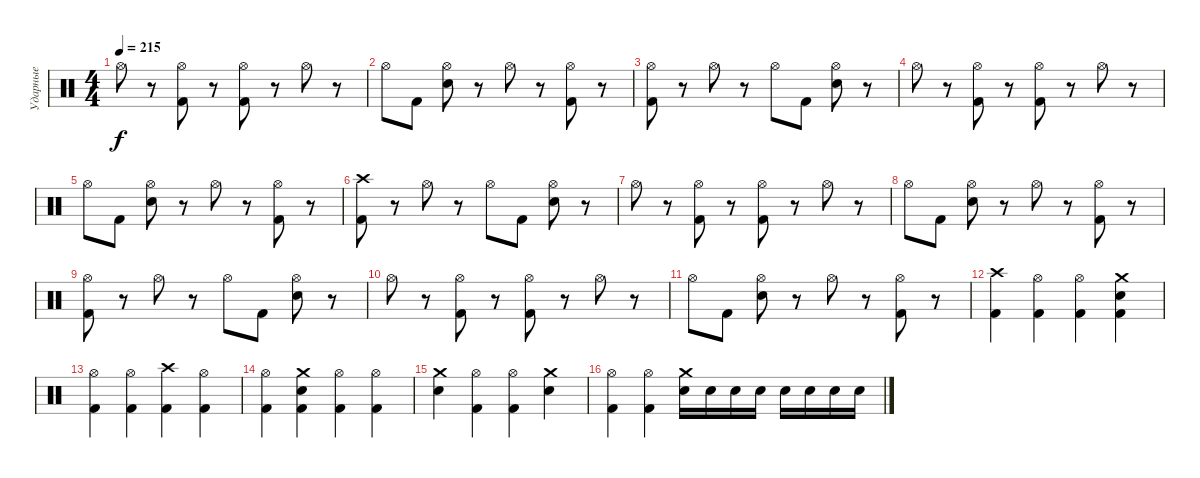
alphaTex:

\track ("Ударные" "Ударные") {instrument percussion}
\staff {score}
\articulation defaults
\ts (4 4)
\tempo 215
\clef neutral
\ks c "Hi-Hat (open)".8{dy f}
r.8 ("Hi-Hat (open)" "Kick (hit) 2").8 r.8 ("Hi-Hat (open)" "Kick (hit) 2").8 r.8 "Hi-Hat (open)".8 r.8 |
"Hi-Hat (open)".8 "Kick (hit) 2".8 ("Hi-Hat (open)" "Snare (hit) 2").8 r.8 "Hi-Hat (open)".8 r.8 ("Hi-Hat (open)" "Kick (hit) 2").8 r.8 |
("Hi-Hat (open)" "Kick (hit) 2").8 r.8 "Hi-Hat (open)".8 r.8 "Hi-Hat (open)".8 "Kick (hit) 2".8 ("Hi-Hat (open)" "Snare (hit) 2").8 r.8 |
"Hi-Hat (open)".8 r.8 ("Hi-Hat (open)" "Kick (hit) 2").8 r.8 ("Hi-Hat (open)" "Kick (hit) 2").8 r.8 "Hi-Hat (open)".8 r.8 |
"Hi-Hat (open)".8 "Kick (hit) 2".8 ("Hi-Hat (open)" "Snare (hit) 2").8 r.8 "Hi-Hat (open)".8 r.8 ("Hi-Hat (open)" "Kick (hit) 2").8 r.8 |
("Crash high (hit)" "Kick (hit) 2").8 r.8 "Hi-Hat (open)".8 r.8 "Hi-Hat (open)".8 "Kick (hit) 2".8 ("Hi-Hat (open)" "Snare (hit) 2").8 r.8 |
"Hi-Hat (open)".8 r.8 ("Hi-Hat (open)" "Kick (hit) 2").8 r.8 ("Hi-Hat (open)" "Kick (hit) 2").8 r.8 "Hi-Hat (open)".8 r.8 |
"Hi-Hat (open)".8 "Kick (hit) 2".8 ("Hi-Hat (open)" "Snare (hit) 2").8 r.8 "Hi-Hat (open)".8 r.8 ("Hi-Hat (open)" "Kick (hit) 2").8 r.8 |
("Hi-Hat (open)" "Kick (hit) 2").8 r.8 "Hi-Hat (open)".8 r.8 "Hi-Hat (open)".8 "Kick (hit) 2".8 ("Hi-Hat (open)" "Snare (hit) 2").8 r.8 |
"Hi-Hat (open)".8 r.8 ("Hi-Hat (open)" "Kick (hit) 2").8 r.8 ("Hi-Hat (open)" "Kick (hit) 2").8 r.8 "Hi-Hat (open)".8 r.8 |
"Hi-Hat (open)".8 "Kick (hit) 2".8 ("Hi-Hat (open)" "Snare (hit) 2").8 r.8 "Hi-Hat (open)".8 r.8 ("Hi-Hat (open)" "Kick (hit) 2").8 r.8 |
("Crash high (hit)" "Kick (hit) 2").4 ("Hi-Hat (open)" "Kick (hit) 2").4 ("Hi-Hat (open)" "Kick (hit) 2").4 ("Crash medium (hit)" "Snare (hit) 2" "Kick (hit) 2").4 |
("Hi-Hat (open)" "Kick (hit) 2").4 ("Hi-Hat (open)" "Kick (hit) 2").4 ("Crash high (hit)" "Kick (hit) 2").4 ("Hi-Hat (open)" "Kick (hit) 2").4 |
("Hi-Hat (open)" "Kick (hit) 2").4 ("Snare (hit) 2" "Crash medium (hit)" "Kick (hit) 2").4 ("Hi-Hat (open)" "Kick (hit) 2").4 ("Hi-Hat (open)" "Kick (hit) 2").4 |
("Crash medium (hit)" "Snare (hit) 2").4 ("Hi-Hat (open)" "Kick (hit) 2").4 ("Hi-Hat (open)" "Kick (hit) 2").4 ("Crash medium (hit)" "Snare (hit) 2").4 |
("Hi-Hat (open)" "Kick (hit) 2").4 ("Hi-Hat (open)" "Kick (hit) 2").4 ("Crash medium (hit)" "Snare (hit) 2").16 "Snare (hit) 2".16 "Snare (hit) 2".16 "Snare (hit) 2".16 "Snare (hit) 2".16 "Snare (hit) 2".16 "Snare (hit) 2".16 "Snare (hit) 2".16
